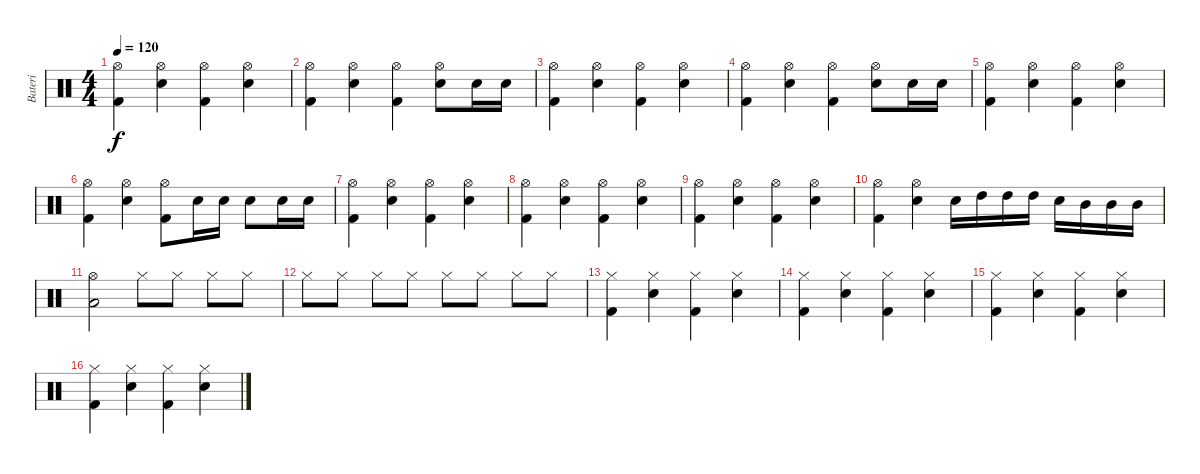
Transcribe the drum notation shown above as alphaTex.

\track ("Bateri" "Bateri") {instrument percussion}
\staff {score}
\articulation defaults
\ts (4 4)
\tempo 120
\clef neutral
\ks c
("Kick (hit) 2" "Hi-Hat (open)").4{dy f} ("Electric Snare (hit)" "Hi-Hat (open)").4 ("Kick (hit) 2" "Hi-Hat (open)").4 ("Electric Snare (hit)" "Hi-Hat (open)").4 |
("Kick (hit) 2" "Hi-Hat (open)").4 ("Electric Snare (hit)" "Hi-Hat (open)").4 ("Kick (hit) 2" "Hi-Hat (open)").4 ("Electric Snare (hit)" "Hi-Hat (open)").8 "Electric Snare (hit)".16 "Electric Snare (hit)".16 |
("Kick (hit) 2" "Hi-Hat (open)").4 ("Electric Snare (hit)" "Hi-Hat (open)").4 ("Kick (hit) 2" "Hi-Hat (open)").4 ("Electric Snare (hit)" "Hi-Hat (open)").4 |
("Kick (hit) 2" "Hi-Hat (open)").4 ("Electric Snare (hit)" "Hi-Hat (open)").4 ("Kick (hit) 2" "Hi-Hat (open)").4 ("Electric Snare (hit)" "Hi-Hat (open)").8 "Electric Snare (hit)".16 "Electric Snare (hit)".16 |
("Kick (hit) 2" "Hi-Hat (open)").4 ("Electric Snare (hit)" "Hi-Hat (open)").4 ("Kick (hit) 2" "Hi-Hat (open)").4 ("Electric Snare (hit)" "Hi-Hat (open)").4 |
("Kick (hit) 2" "Hi-Hat (open)").4 ("Electric Snare (hit)" "Hi-Hat (open)").4 ("Kick (hit) 2" "Hi-Hat (open)").8 "Electric Snare (hit)".16 "Electric Snare (hit)".16 "Electric Snare (hit)".8 "Electric Snare (hit)".16 "Electric Snare (hit)".16 |
("Kick (hit) 2" "Hi-Hat (open)").4 ("Electric Snare (hit)" "Hi-Hat (open)").4 ("Kick (hit) 2" "Hi-Hat (open)").4 ("Electric Snare (hit)" "Hi-Hat (open)").4 |
("Kick (hit) 2" "Hi-Hat (open)").4 ("Electric Snare (hit)" "Hi-Hat (open)").4 ("Kick (hit) 2" "Hi-Hat (open)").4 ("Electric Snare (hit)" "Hi-Hat (open)").4 |
("Kick (hit) 2" "Hi-Hat (open)").4 ("Electric Snare (hit)" "Hi-Hat (open)").4 ("Kick (hit) 2" "Hi-Hat (open)").4 ("Electric Snare (hit)" "Hi-Hat (open)").4 |
("Kick (hit) 2" "Hi-Hat (open)").4 ("Electric Snare (hit)" "Hi-Hat (open)").4 "Electric Snare (hit)".16 "High Tom (hit)".16 "High Tom (hit)".16 "High Tom (hit)".16 "Electric Snare (hit)".16 "Mid Tom (hit)".16 "Mid Tom (hit)".16 "Mid Tom (hit)".16 |
("Low Tom (hit)" "Hi-Hat (open)").2 "Hi-Hat (closed)".8 "Hi-Hat (closed)".8 "Hi-Hat (closed)".8 "Hi-Hat (closed)".8 |
"Hi-Hat (closed)".8 "Hi-Hat (closed)".8 "Hi-Hat (closed)".8 "Hi-Hat (closed)".8 "Hi-Hat (closed)".8 "Hi-Hat (closed)".8 "Hi-Hat (closed)".8 "Hi-Hat (closed)".8 |
("Kick (hit) 2" "Hi-Hat (closed)").4 ("Electric Snare (hit)" "Hi-Hat (closed)").4 ("Kick (hit) 2" "Hi-Hat (closed)").4 ("Electric Snare (hit)" "Hi-Hat (closed)").4 |
("Kick (hit) 2" "Hi-Hat (closed)").4 ("Electric Snare (hit)" "Hi-Hat (closed)").4 ("Kick (hit) 2" "Hi-Hat (closed)").4 ("Electric Snare (hit)" "Hi-Hat (closed)").4 |
("Kick (hit) 2" "Hi-Hat (closed)").4 ("Electric Snare (hit)" "Hi-Hat (closed)").4 ("Kick (hit) 2" "Hi-Hat (closed)").4 ("Electric Snare (hit)" "Hi-Hat (closed)").4 |
("Kick (hit) 2" "Hi-Hat (closed)").4 ("Electric Snare (hit)" "Hi-Hat (closed)").4 ("Kick (hit) 2" "Hi-Hat (closed)").4 ("Electric Snare (hit)" "Hi-Hat (closed)").4
